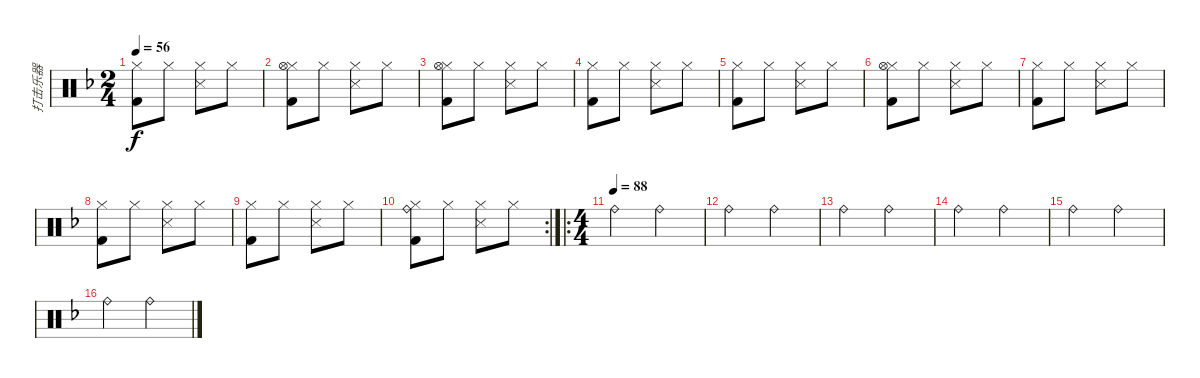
\track ("打击乐器" "打击乐器") {instrument percussion}
\staff {score}
\articulation defaults
\ts (2 4)
\tempo 56
\clef neutral
\ks f
("Hi-Hat (closed)" "Kick (hit) 2").8{dy f} "Hi-Hat (closed)".8 ("Hi-Hat (closed)" "Snare (side stick) 3").8 "Hi-Hat (closed)".8 |
("Hi-Hat (closed)" "Hi-Hat (open)" "Kick (hit) 2").8 "Hi-Hat (closed)".8 ("Hi-Hat (closed)" "Snare (side stick) 3").8 "Hi-Hat (closed)".8 |
("Hi-Hat (closed)" "Hi-Hat (open)" "Kick (hit) 2").8 "Hi-Hat (closed)".8 ("Hi-Hat (closed)" "Snare (side stick) 3").8 "Hi-Hat (closed)".8 |
("Hi-Hat (closed)" "Kick (hit) 2").8 "Hi-Hat (closed)".8 ("Hi-Hat (closed)" "Snare (side stick) 3").8 "Hi-Hat (closed)".8 |
("Hi-Hat (closed)" "Kick (hit) 2").8 "Hi-Hat (closed)".8 ("Hi-Hat (closed)" "Snare (side stick) 3").8 "Hi-Hat (closed)".8 |
("Hi-Hat (closed)" "Hi-Hat (open)" "Kick (hit) 2").8 "Hi-Hat (closed)".8 ("Hi-Hat (closed)" "Snare (side stick) 3").8 "Hi-Hat (closed)".8 |
("Hi-Hat (closed)" "Kick (hit) 2").8 "Hi-Hat (closed)".8 ("Hi-Hat (closed)" "Snare (side stick) 3").8 "Hi-Hat (closed)".8 |
("Hi-Hat (closed)" "Kick (hit) 2").8 "Hi-Hat (closed)".8 ("Hi-Hat (closed)" "Snare (side stick) 3").8 "Hi-Hat (closed)".8 |
("Hi-Hat (closed)" "Kick (hit) 2").8 "Hi-Hat (closed)".8 ("Hi-Hat (closed)" "Snare (side stick) 3").8 "Hi-Hat (closed)".8 |
\rc 2
("Hi-Hat (closed)" "Ride (bell)" "Kick (hit) 2").8 "Hi-Hat (closed)".8 ("Hi-Hat (closed)" "Snare (side stick) 3").8 "Hi-Hat (closed)".8 |
\ro
\ts (4 4)
\tempo (88)
"Ride (bell)".2 "Ride (bell)".2 |
"Ride (bell)".2 "Ride (bell)".2 |
"Ride (bell)".2 "Ride (bell)".2 |
"Ride (bell)".2 "Ride (bell)".2 |
"Ride (bell)".2 "Ride (bell)".2 |
"Ride (bell)".2 "Ride (bell)".2
